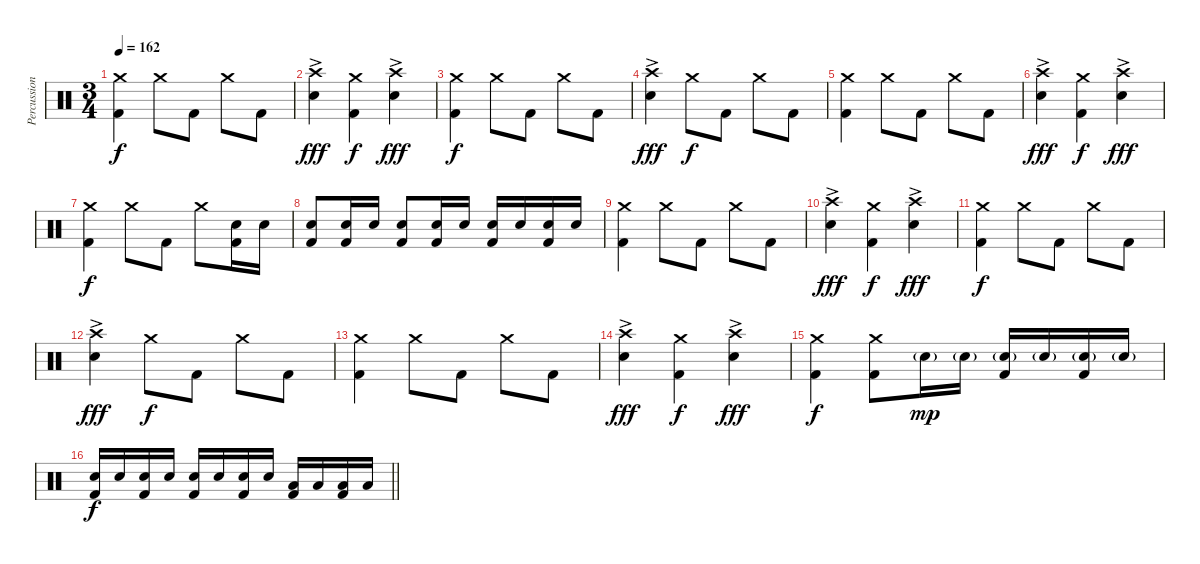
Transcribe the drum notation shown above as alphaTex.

\track ("Percussion" "Percussion") {instrument percussion}
\staff {score}
\articulation defaults
\ts (3 4)
\tempo 162
\clef neutral
\ks c
("Crash medium (hit)" "Kick (hit) 2").4{dy f} "Crash medium (hit)".8 "Kick (hit) 2".8 "Crash medium (hit)".8 "Kick (hit) 2".8 |
("Crash high (hit)"{ac} "Electric Snare (hit)").4{dy fff} ("Crash medium (hit)" "Kick (hit) 2").4{dy f} ("Crash high (hit)"{ac} "Electric Snare (hit)").4{dy fff} |
("Crash medium (hit)" "Kick (hit) 2").4{dy f} "Crash medium (hit)".8 "Kick (hit) 2".8 "Crash medium (hit)".8 "Kick (hit) 2".8 |
("Crash high (hit)"{ac} "Electric Snare (hit)").4{dy fff} "Crash medium (hit)".8{dy f} "Kick (hit) 2".8 "Crash medium (hit)".8 "Kick (hit) 2".8 |
("Crash medium (hit)" "Kick (hit) 2").4 "Crash medium (hit)".8 "Kick (hit) 2".8 "Crash medium (hit)".8 "Kick (hit) 2".8 |
("Crash high (hit)"{ac} "Electric Snare (hit)").4{dy fff} ("Crash medium (hit)" "Kick (hit) 2").4{dy f} ("Crash high (hit)"{ac} "Electric Snare (hit)").4{dy fff} |
("Crash medium (hit)" "Kick (hit) 2").4{dy f} "Crash medium (hit)".8 "Kick (hit) 2".8 "Crash medium (hit)".8 ("Electric Snare (hit)" "Kick (hit) 2").16 "Electric Snare (hit)".16 |
("Electric Snare (hit)" "Kick (hit) 2").8 ("Electric Snare (hit)" "Kick (hit) 2").16 "Electric Snare (hit)".16 ("Electric Snare (hit)" "Kick (hit) 2").8 ("Electric Snare (hit)" "Kick (hit) 2").16 "Electric Snare (hit)".16 ("Electric Snare (hit)" "Kick (hit) 2").16 "Electric Snare (hit)".16 ("Electric Snare (hit)" "Kick (hit) 2").16 "Electric Snare (hit)".16 |
("Crash medium (hit)" "Kick (hit) 2").4 "Crash medium (hit)".8 "Kick (hit) 2".8 "Crash medium (hit)".8 "Kick (hit) 2".8 |
("Crash high (hit)"{ac} "Electric Snare (hit)").4{dy fff} ("Crash medium (hit)" "Kick (hit) 2").4{dy f} ("Crash high (hit)"{ac} "Electric Snare (hit)").4{dy fff} |
("Crash medium (hit)" "Kick (hit) 2").4{dy f} "Crash medium (hit)".8 "Kick (hit) 2".8 "Crash medium (hit)".8 "Kick (hit) 2".8 |
("Crash high (hit)"{ac} "Electric Snare (hit)").4{dy fff} "Crash medium (hit)".8{dy f} "Kick (hit) 2".8 "Crash medium (hit)".8 "Kick (hit) 2".8 |
("Crash medium (hit)" "Kick (hit) 2").4 "Crash medium (hit)".8 "Kick (hit) 2".8 "Crash medium (hit)".8 "Kick (hit) 2".8 |
("Crash high (hit)"{ac} "Electric Snare (hit)").4{dy fff} ("Crash medium (hit)" "Kick (hit) 2").4{dy f} ("Crash high (hit)"{ac} "Electric Snare (hit)").4{dy fff} |
("Crash medium (hit)" "Kick (hit) 2").4{dy f} ("Crash medium (hit)" "Kick (hit) 2").8 "Electric Snare (hit)"{g}.16{dy mp} "Electric Snare (hit)"{g}.16 ("Electric Snare (hit)"{g} "Kick (hit) 2").16 "Electric Snare (hit)"{g}.16 ("Electric Snare (hit)"{g} "Kick (hit) 2").16 "Electric Snare (hit)"{g}.16 |
\barLineRight lightlight
("Electric Snare (hit)" "Kick (hit) 2").16{dy f} "Electric Snare (hit)".16 ("Electric Snare (hit)" "Kick (hit) 2").16 "Electric Snare (hit)".16 ("Electric Snare (hit)" "Kick (hit) 2").16 "Electric Snare (hit)".16 ("Electric Snare (hit)" "Kick (hit) 2").16 "Electric Snare (hit)".16 ("Low Tom (hit)" "Kick (hit) 2").16 "Low Tom (hit)".16 ("Low Tom (hit)" "Kick (hit) 2").16 "Low Tom (hit)".16
